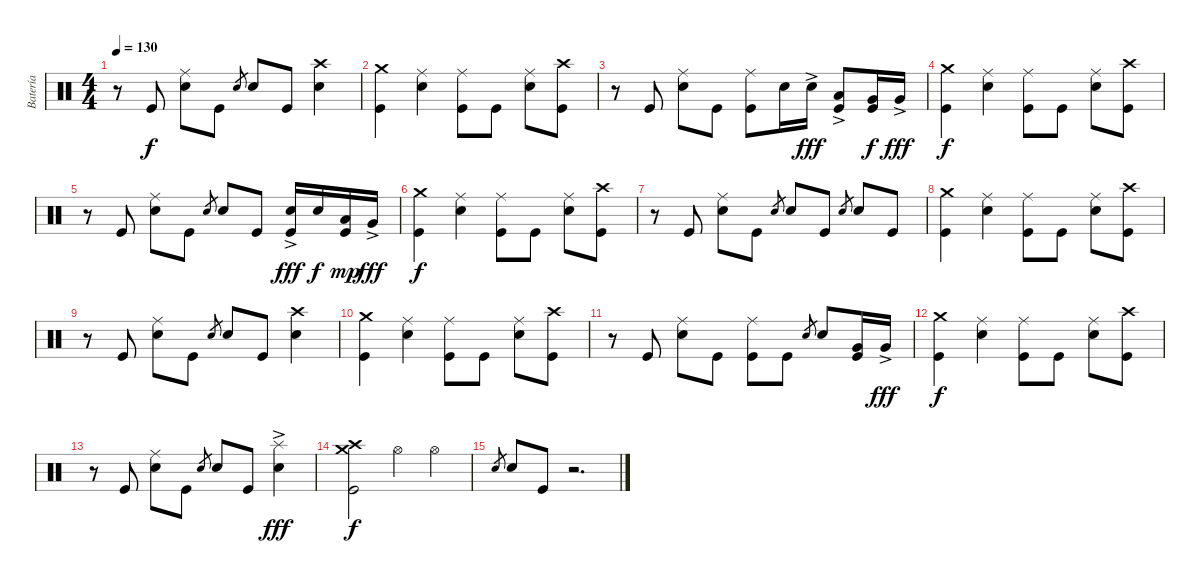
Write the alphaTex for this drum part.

\track ("Batería" "Batería") {instrument percussion}
\staff {score}
\articulation defaults
\ts (4 4)
\tempo 130
\clef neutral
\ks c
r.8{dy f} "Kick (hit)".8 ("Electric Snare (hit)" "Ride (middle)").8 "Kick (hit)".8 "Electric Snare (hit)".8{gr} "Electric Snare (hit)".8 "Kick (hit)".8 ("Electric Snare (hit)" "Crash high (hit)").4 |
("Kick (hit)" "Crash medium (hit)").4 ("Electric Snare (hit)" "Ride (middle)").4 ("Kick (hit)" "Ride (middle)").8 "Kick (hit)".8 ("Electric Snare (hit)" "Ride (middle)").8 ("Kick (hit)" "Crash high (hit)").8 |
r.8 "Kick (hit)".8 ("Electric Snare (hit)" "Ride (middle)").8 "Kick (hit)".8 ("Kick (hit)" "Ride (middle)").8 "Electric Snare (hit)".16 "Electric Snare (hit)"{ac}.16{dy fff} ("Kick (hit)" "Low Tom (hit)"{ac}).8 ("Kick (hit)" "Very Low Tom (hit)").16{dy f} "Very Low Tom (hit)"{ac}.16{dy fff} |
("Kick (hit)" "Crash medium (hit)").4{dy f} ("Electric Snare (hit)" "Ride (middle)").4 ("Kick (hit)" "Ride (middle)").8 "Kick (hit)".8 ("Electric Snare (hit)" "Ride (middle)").8 ("Kick (hit)" "Crash high (hit)").8 |
r.8 "Kick (hit)".8 ("Electric Snare (hit)" "Ride (middle)").8 "Kick (hit)".8 "Electric Snare (hit)".8{gr} "Electric Snare (hit)".8 "Kick (hit)".8 ("Kick (hit)" "Electric Snare (hit)"{ac}).16{dy fff} "Electric Snare (hit)".16{dy f} ("Kick (hit)" "Low Tom (hit)").16{dy mp} "Very Low Tom (hit)"{ac}.16{dy fff} |
("Kick (hit)" "Crash medium (hit)").4{dy f} ("Electric Snare (hit)" "Ride (middle)").4 ("Kick (hit)" "Ride (middle)").8 "Kick (hit)".8 ("Electric Snare (hit)" "Ride (middle)").8 ("Kick (hit)" "Crash high (hit)").8 |
r.8 "Kick (hit)".8 ("Electric Snare (hit)" "Ride (middle)").8 "Kick (hit)".8 "Electric Snare (hit)".8{gr} "Electric Snare (hit)".8 "Kick (hit)".8 "Electric Snare (hit)".8{gr} "Electric Snare (hit)".8 "Kick (hit)".8 |
("Kick (hit)" "Crash medium (hit)").4 ("Electric Snare (hit)" "Ride (middle)").4 ("Kick (hit)" "Ride (middle)").8 "Kick (hit)".8 ("Electric Snare (hit)" "Ride (middle)").8 ("Kick (hit)" "Crash high (hit)").8 |
r.8 "Kick (hit)".8 ("Electric Snare (hit)" "Ride (middle)").8 "Kick (hit)".8 "Electric Snare (hit)".8{gr} "Electric Snare (hit)".8 "Kick (hit)".8 ("Electric Snare (hit)" "Crash high (hit)").4 |
("Kick (hit)" "Crash medium (hit)").4 ("Electric Snare (hit)" "Ride (middle)").4 ("Kick (hit)" "Ride (middle)").8 "Kick (hit)".8 ("Electric Snare (hit)" "Ride (middle)").8 ("Kick (hit)" "Crash high (hit)").8 |
r.8 "Kick (hit)".8 ("Electric Snare (hit)" "Ride (middle)").8 "Kick (hit)".8 ("Kick (hit)" "Ride (middle)").8 "Kick (hit)".8 "Electric Snare (hit)".8{gr} "Electric Snare (hit)".8 ("Kick (hit)" "Very Low Tom (hit)").16 "Very Low Tom (hit)"{ac}.16{dy fff} |
("Kick (hit)" "Crash medium (hit)").4{dy f} ("Electric Snare (hit)" "Ride (middle)").4 ("Kick (hit)" "Ride (middle)").8 "Kick (hit)".8 ("Electric Snare (hit)" "Ride (middle)").8 ("Kick (hit)" "Crash high (hit)").8 |
r.8 "Kick (hit)".8 ("Electric Snare (hit)" "Ride (middle)").8 "Kick (hit)".8 "Electric Snare (hit)".8{gr} "Electric Snare (hit)".8 "Kick (hit)".8 ("Electric Snare (hit)" "Splash (hit)"{ac}).4{dy fff} |
("Kick (hit)" "Crash medium (hit)" "Crash high (hit)").2{dy f} "Hi-Hat (open)".4 "Hi-Hat (open)".4 |
"Electric Snare (hit)".8{gr} "Electric Snare (hit)".8 "Kick (hit)".8 r.2{d}
